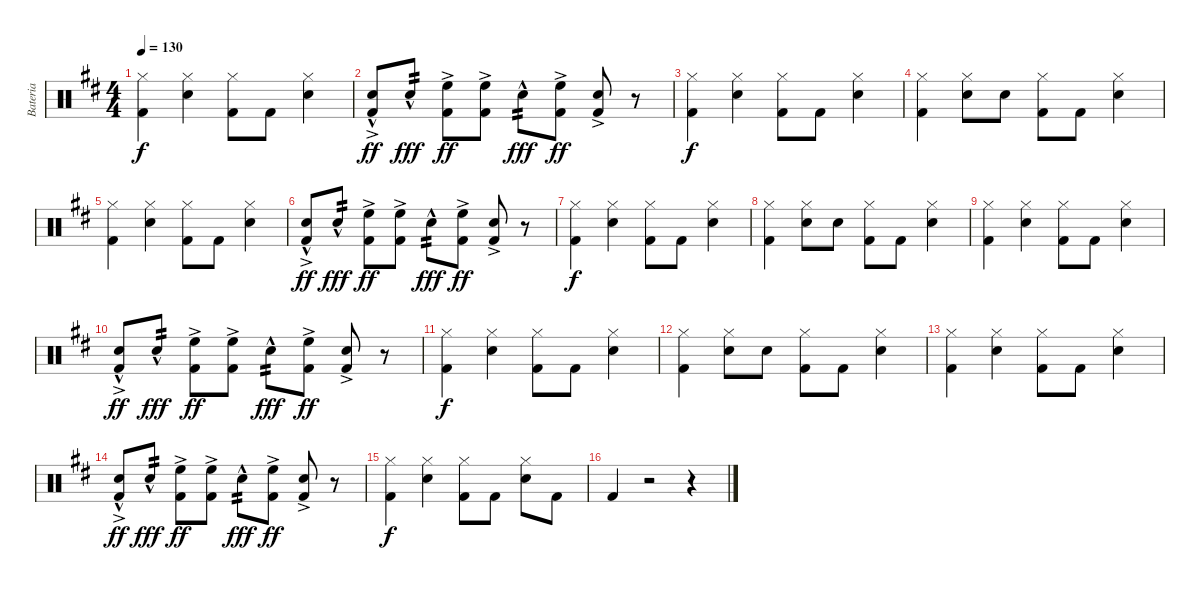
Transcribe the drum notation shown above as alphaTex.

\track ("Bateria" "Bateria") {instrument percussion}
\staff {score}
\articulation defaults
\ts (4 4)
\tempo 130
\clef neutral
\ks d
("Hi-Hat (closed)" "Kick (hit) 2").4{dy f} ("Hi-Hat (closed)" "Electric Snare (hit)").4 ("Hi-Hat (closed)" "Kick (hit) 2").8 "Kick (hit) 2".8 ("Hi-Hat (closed)" "Electric Snare (hit)").4 |
("Electric Snare (hit)"{hac} "Kick (hit) 2"{ac}).8{dy ff} "Electric Snare (hit)"{hac}.8{tp 2 dy fff} ("High Floor Tom (hit)" "Kick (hit) 2"{ac}).8{dy ff} ("High Floor Tom (hit)" "Kick (hit) 2"{ac}).8 "Electric Snare (hit)"{hac}.8{tp 2 dy fff} ("High Floor Tom (hit)" "Kick (hit) 2"{ac}).8{dy ff} ("Electric Snare (hit)" "Kick (hit) 2"{ac}).8 r.8 |
("Hi-Hat (closed)" "Kick (hit) 2").4{dy f} ("Hi-Hat (closed)" "Electric Snare (hit)").4 ("Hi-Hat (closed)" "Kick (hit) 2").8 "Kick (hit) 2".8 ("Hi-Hat (closed)" "Electric Snare (hit)").4 |
("Hi-Hat (closed)" "Kick (hit) 2").4 ("Hi-Hat (closed)" "Electric Snare (hit)").8 "Electric Snare (hit)".8 ("Hi-Hat (closed)" "Kick (hit) 2").8 "Kick (hit) 2".8 ("Hi-Hat (closed)" "Electric Snare (hit)").4 |
("Hi-Hat (closed)" "Kick (hit) 2").4 ("Hi-Hat (closed)" "Electric Snare (hit)").4 ("Hi-Hat (closed)" "Kick (hit) 2").8 "Kick (hit) 2".8 ("Hi-Hat (closed)" "Electric Snare (hit)").4 |
("Electric Snare (hit)"{hac} "Kick (hit) 2"{ac}).8{dy ff} "Electric Snare (hit)"{hac}.8{tp 2 dy fff} ("High Floor Tom (hit)" "Kick (hit) 2"{ac}).8{dy ff} ("High Floor Tom (hit)" "Kick (hit) 2"{ac}).8 "Electric Snare (hit)"{hac}.8{tp 2 dy fff} ("High Floor Tom (hit)" "Kick (hit) 2"{ac}).8{dy ff} ("Electric Snare (hit)" "Kick (hit) 2"{ac}).8 r.8 |
("Hi-Hat (closed)" "Kick (hit) 2").4{dy f} ("Hi-Hat (closed)" "Electric Snare (hit)").4 ("Hi-Hat (closed)" "Kick (hit) 2").8 "Kick (hit) 2".8 ("Hi-Hat (closed)" "Electric Snare (hit)").4 |
("Hi-Hat (closed)" "Kick (hit) 2").4 ("Hi-Hat (closed)" "Electric Snare (hit)").8 "Electric Snare (hit)".8 ("Hi-Hat (closed)" "Kick (hit) 2").8 "Kick (hit) 2".8 ("Hi-Hat (closed)" "Electric Snare (hit)").4 |
("Hi-Hat (closed)" "Kick (hit) 2").4 ("Hi-Hat (closed)" "Electric Snare (hit)").4 ("Hi-Hat (closed)" "Kick (hit) 2").8 "Kick (hit) 2".8 ("Hi-Hat (closed)" "Electric Snare (hit)").4 |
("Electric Snare (hit)"{hac} "Kick (hit) 2"{ac}).8{dy ff} "Electric Snare (hit)"{hac}.8{tp 2 dy fff} ("High Floor Tom (hit)" "Kick (hit) 2"{ac}).8{dy ff} ("High Floor Tom (hit)" "Kick (hit) 2"{ac}).8 "Electric Snare (hit)"{hac}.8{tp 2 dy fff} ("High Floor Tom (hit)" "Kick (hit) 2"{ac}).8{dy ff} ("Electric Snare (hit)" "Kick (hit) 2"{ac}).8 r.8 |
("Hi-Hat (closed)" "Kick (hit) 2").4{dy f} ("Hi-Hat (closed)" "Electric Snare (hit)").4 ("Hi-Hat (closed)" "Kick (hit) 2").8 "Kick (hit) 2".8 ("Hi-Hat (closed)" "Electric Snare (hit)").4 |
("Hi-Hat (closed)" "Kick (hit) 2").4 ("Hi-Hat (closed)" "Electric Snare (hit)").8 "Electric Snare (hit)".8 ("Hi-Hat (closed)" "Kick (hit) 2").8 "Kick (hit) 2".8 ("Hi-Hat (closed)" "Electric Snare (hit)").4 |
("Hi-Hat (closed)" "Kick (hit) 2").4 ("Hi-Hat (closed)" "Electric Snare (hit)").4 ("Hi-Hat (closed)" "Kick (hit) 2").8 "Kick (hit) 2".8 ("Hi-Hat (closed)" "Electric Snare (hit)").4 |
("Electric Snare (hit)"{hac} "Kick (hit) 2"{ac}).8{dy ff} "Electric Snare (hit)"{hac}.8{tp 2 dy fff} ("High Floor Tom (hit)" "Kick (hit) 2"{ac}).8{dy ff} ("High Floor Tom (hit)" "Kick (hit) 2"{ac}).8 "Electric Snare (hit)"{hac}.8{tp 2 dy fff} ("High Floor Tom (hit)" "Kick (hit) 2"{ac}).8{dy ff} ("Electric Snare (hit)" "Kick (hit) 2"{ac}).8 r.8 |
("Hi-Hat (closed)" "Kick (hit) 2").4{dy f} ("Hi-Hat (closed)" "Electric Snare (hit)").4 ("Hi-Hat (closed)" "Kick (hit) 2").8 "Kick (hit) 2".8 ("Hi-Hat (closed)" "Electric Snare (hit)").8 "Kick (hit) 2".8 |
"Kick (hit) 2".4 r.2 r.4
